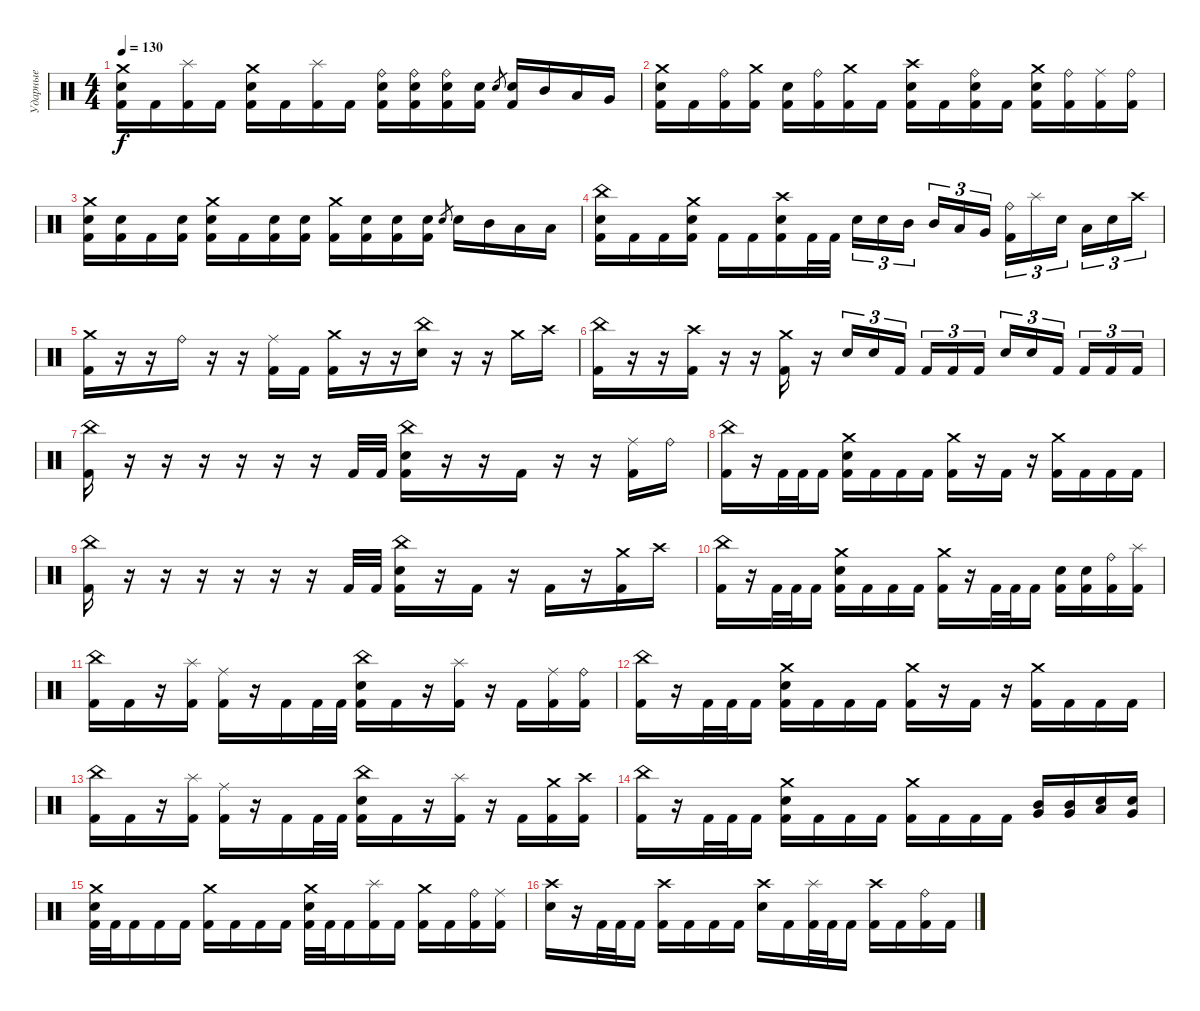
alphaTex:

\track ("Ударные" "Ударные") {instrument percussion}
\staff {score}
\articulation defaults
\ts (4 4)
\tempo 130
\clef neutral
\ks c
("Crash medium (hit)" "Electric Snare (hit)" "Kick (hit) 2").16{dy f} "Kick (hit) 2".16 ("Splash (hit)" "Kick (hit) 2").16 "Kick (hit) 2".16 ("Crash medium (hit)" "Electric Snare (hit)" "Kick (hit) 2").16 "Kick (hit) 2".16 ("Splash (hit)" "Kick (hit) 2").16 "Kick (hit) 2".16 ("Ride (bell)" "Electric Snare (hit)" "Kick (hit) 2").16 ("Ride (bell)" "Electric Snare (hit)" "Kick (hit) 2").16 ("Ride (bell)" "Electric Snare (hit)" "Kick (hit) 2").16 ("Electric Snare (hit)" "Kick (hit) 2").16 "Electric Snare (hit)".8{gr} ("Electric Snare (hit)" "Kick (hit) 2").16 "Mid Tom (hit)".16 "Low Tom (hit)".16 "Very Low Tom (hit)".16 |
("Crash medium (hit)" "Electric Snare (hit)" "Kick (hit) 2").16 "Kick (hit) 2".16 ("Ride (bell)" "Kick (hit) 2").16 ("Crash medium (hit)" "Kick (hit) 2").16 ("Electric Snare (hit)" "Kick (hit) 2").16 ("Ride (bell)" "Kick (hit) 2").16 ("Crash medium (hit)" "Kick (hit) 2").16 "Kick (hit) 2".16 ("Crash high (hit)" "Electric Snare (hit)" "Kick (hit) 2").16 "Kick (hit) 2".16 ("Ride (bell)" "Electric Snare (hit)" "Kick (hit) 2").16 "Kick (hit) 2".16 ("Crash medium (hit)" "Electric Snare (hit)" "Kick (hit) 2").16 ("Ride (bell)" "Kick (hit) 2").16 ("Ride (middle)" "Kick (hit) 2").16 ("Ride (bell)" "Kick (hit) 2").16 |
("Crash medium (hit)" "Electric Snare (hit)" "Kick (hit) 2").16 ("Electric Snare (hit)" "Kick (hit) 2").16 "Kick (hit) 2".16 ("Electric Snare (hit)" "Kick (hit) 2").16 ("Crash medium (hit)" "Electric Snare (hit)" "Kick (hit) 2").16 "Kick (hit) 2".16 ("Electric Snare (hit)" "Kick (hit) 2").16 ("Electric Snare (hit)" "Kick (hit) 2").16 ("Crash medium (hit)" "Kick (hit) 2").16 ("Electric Snare (hit)" "Kick (hit) 2").16 ("Electric Snare (hit)" "Kick (hit) 2").16 ("Electric Snare (hit)" "Kick (hit) 2").16 "Electric Snare (hit)".8{gr} "Electric Snare (hit)".16 "Mid Tom (hit)".16 "Low Floor Tom (hit)".16 "Low Floor Tom (hit)".16 |
("China (hit)" "Electric Snare (hit)" "Kick (hit) 2").16 "Kick (hit) 2".16 "Kick (hit) 2".16 ("Crash medium (hit)" "Electric Snare (hit)" "Kick (hit) 2").16 "Kick (hit) 2".16 "Kick (hit) 2".16 ("Crash high (hit)" "Electric Snare (hit)" "Kick (hit) 2").16 "Kick (hit) 2".32 "Kick (hit) 2".32 "Electric Snare (hit)".16{tu (3 2)} "Electric Snare (hit)".16{tu (3 2)} "Mid Tom (hit)".16{tu (3 2) beam splitsecondary} "Mid Tom (hit)".16{tu (3 2)} "Low Tom (hit)".16{tu (3 2)} "Very Low Tom (hit)".16{tu (3 2)} ("Ride (bell)" "Kick (hit) 2").16{tu (3 2)} "Splash (hit)".16{tu (3 2)} "Electric Snare (hit)".16{tu (3 2) beam splitsecondary} "Low Tom (hit)".16{tu (3 2)} "Electric Snare (hit)".16{tu (3 2)} "Crash high (hit)".16{tu (3 2)} |
("Crash medium (hit)" "Kick (hit) 2").16 r.16 r.16 "Ride (bell)".16 r.16 r.16 ("Ride (middle)" "Kick (hit) 2").16 "Kick (hit) 2".16 ("Crash medium (hit)" "Kick (hit) 2").16 r.16 r.16 ("China (hit)" "Electric Snare (hit)").16 r.16 r.16 "Crash medium (hit)".16 "Crash high (hit)".16 |
("China (hit)" "Kick (hit) 2").16 r.16 r.16 ("Crash high (hit)" "Kick (hit) 2").16 r.16 r.16 ("Crash medium (hit)" "Kick (hit) 2").16 r.16 "Electric Snare (hit)".16{tu (3 2)} "Electric Snare (hit)".16{tu (3 2)} "Kick (hit) 2".16{tu (3 2) beam splitsecondary} "Kick (hit) 2".16{tu (3 2)} "Kick (hit) 2".16{tu (3 2)} "Kick (hit) 2".16{tu (3 2)} "Electric Snare (hit)".16{tu (3 2)} "Electric Snare (hit)".16{tu (3 2)} "Kick (hit) 2".16{tu (3 2) beam splitsecondary} "Kick (hit) 2".16{tu (3 2)} "Kick (hit) 2".16{tu (3 2)} "Kick (hit) 2".16{tu (3 2)} |
("China (hit)" "Kick (hit) 2").16 r.16 r.16 r.16 r.16 r.16 r.16 "Kick (hit) 2".32 "Kick (hit) 2".32 ("China (hit)" "Electric Snare (hit)" "Kick (hit) 2").16 r.16 r.16 "Kick (hit) 2".16 r.16 r.16 ("Ride (middle)" "Kick (hit) 2").16 "Ride (bell)".16 |
("China (hit)" "Kick (hit) 2").16 r.16 "Kick (hit) 2".32 "Kick (hit) 2".32 "Kick (hit) 2".16 ("Crash medium (hit)" "Electric Snare (hit)" "Kick (hit) 2").16 "Kick (hit) 2".16 "Kick (hit) 2".16 "Kick (hit) 2".16 ("Crash medium (hit)" "Kick (hit) 2").16 r.16 "Kick (hit) 2".16 r.16 ("Crash medium (hit)" "Kick (hit) 2").16 "Kick (hit) 2".16 "Kick (hit) 2".16 "Kick (hit) 2".16 |
("China (hit)" "Kick (hit) 2").16 r.16 r.16 r.16 r.16 r.16 r.16 "Kick (hit) 2".32 "Kick (hit) 2".32 ("China (hit)" "Electric Snare (hit)" "Kick (hit) 2").16 r.16 "Kick (hit) 2".16 r.16 "Kick (hit) 2".16 r.16 ("Crash medium (hit)" "Kick (hit) 2").16 "Crash high (hit)".16 |
("China (hit)" "Kick (hit) 2").16 r.16 "Kick (hit) 2".32 "Kick (hit) 2".32 "Kick (hit) 2".16 ("Crash medium (hit)" "Electric Snare (hit)" "Kick (hit) 2").16 "Kick (hit) 2".16 "Kick (hit) 2".16 "Kick (hit) 2".16 ("Crash medium (hit)" "Kick (hit) 2").16 r.16 "Kick (hit) 2".32 "Kick (hit) 2".32 "Kick (hit) 2".16 ("Electric Snare (hit)" "Kick (hit) 2").16 ("Electric Snare (hit)" "Kick (hit) 2").16 ("Ride (bell)" "Kick (hit) 2").16 ("Splash (hit)" "Kick (hit) 2").16 |
("China (hit)" "Kick (hit) 2").16 "Kick (hit) 2".16 r.16 ("Splash (hit)" "Kick (hit) 2").16 ("Ride (middle)" "Kick (hit) 2").16 r.16 "Kick (hit) 2".16 "Kick (hit) 2".32 "Kick (hit) 2".32 ("China (hit)" "Electric Snare (hit)" "Kick (hit) 2").16 "Kick (hit) 2".16 r.16 ("Splash (hit)" "Kick (hit) 2").16 r.16 "Kick (hit) 2".16 ("Ride (middle)" "Kick (hit) 2").16 ("Ride (bell)" "Kick (hit) 2").16 |
("China (hit)" "Kick (hit) 2").16 r.16 "Kick (hit) 2".32 "Kick (hit) 2".32 "Kick (hit) 2".16 ("Crash medium (hit)" "Electric Snare (hit)" "Kick (hit) 2").16 "Kick (hit) 2".16 "Kick (hit) 2".16 "Kick (hit) 2".16 ("Crash medium (hit)" "Kick (hit) 2").16 r.16 "Kick (hit) 2".16 r.16 ("Crash medium (hit)" "Kick (hit) 2").16 "Kick (hit) 2".16 "Kick (hit) 2".16 "Kick (hit) 2".16 |
("China (hit)" "Kick (hit) 2").16 "Kick (hit) 2".16 r.16 ("Splash (hit)" "Kick (hit) 2").16 ("Ride (middle)" "Kick (hit) 2").16 r.16 "Kick (hit) 2".16 "Kick (hit) 2".32 "Kick (hit) 2".32 ("China (hit)" "Electric Snare (hit)" "Kick (hit) 2").16 "Kick (hit) 2".16 r.16 ("Splash (hit)" "Kick (hit) 2").16 r.16 "Kick (hit) 2".16 ("Crash medium (hit)" "Kick (hit) 2").16 ("Crash high (hit)" "Kick (hit) 2").16 |
("China (hit)" "Kick (hit) 2").16 r.16 "Kick (hit) 2".32 "Kick (hit) 2".32 "Kick (hit) 2".16 ("Crash medium (hit)" "Electric Snare (hit)" "Kick (hit) 2").16 "Kick (hit) 2".16 "Kick (hit) 2".16 "Kick (hit) 2".16 ("Crash medium (hit)" "Kick (hit) 2").16 "Kick (hit) 2".16 "Kick (hit) 2".16 "Kick (hit) 2".16 ("Very Low Tom (hit)" "Mid Tom (hit)").16 ("Very Low Tom (hit)" "Mid Tom (hit)").16 ("Low Tom (hit)" "Electric Snare (hit)").16 ("Very Low Tom (hit)" "Electric Snare (hit)").16 |
("Crash medium (hit)" "Electric Snare (hit)" "Kick (hit) 2").32 "Kick (hit) 2".32 "Kick (hit) 2".16 "Kick (hit) 2".16 "Kick (hit) 2".16 ("Crash medium (hit)" "Kick (hit) 2").16 "Kick (hit) 2".16 "Kick (hit) 2".16 "Kick (hit) 2".16 ("Crash medium (hit)" "Electric Snare (hit)" "Kick (hit) 2").32 "Kick (hit) 2".32 "Kick (hit) 2".16 ("Splash (hit)" "Kick (hit) 2").16 "Kick (hit) 2".16 ("Crash medium (hit)" "Kick (hit) 2").16 "Kick (hit) 2".16 ("Ride (bell)" "Kick (hit) 2").16 ("Ride (middle)" "Kick (hit) 2").16 |
("Crash high (hit)" "Electric Snare (hit)").16 r.16 "Kick (hit) 2".32 "Kick (hit) 2".32 "Kick (hit) 2".16 ("Crash high (hit)" "Kick (hit) 2").16 "Kick (hit) 2".16 "Kick (hit) 2".16 "Kick (hit) 2".16 ("Crash high (hit)" "Electric Snare (hit)").16 "Kick (hit) 2".16 ("Splash (hit)" "Kick (hit) 2").32 "Kick (hit) 2".32 "Kick (hit) 2".16 ("Crash high (hit)" "Kick (hit) 2").16 "Kick (hit) 2".16 ("Ride (bell)" "Kick (hit) 2").16 "Kick (hit) 2".16
